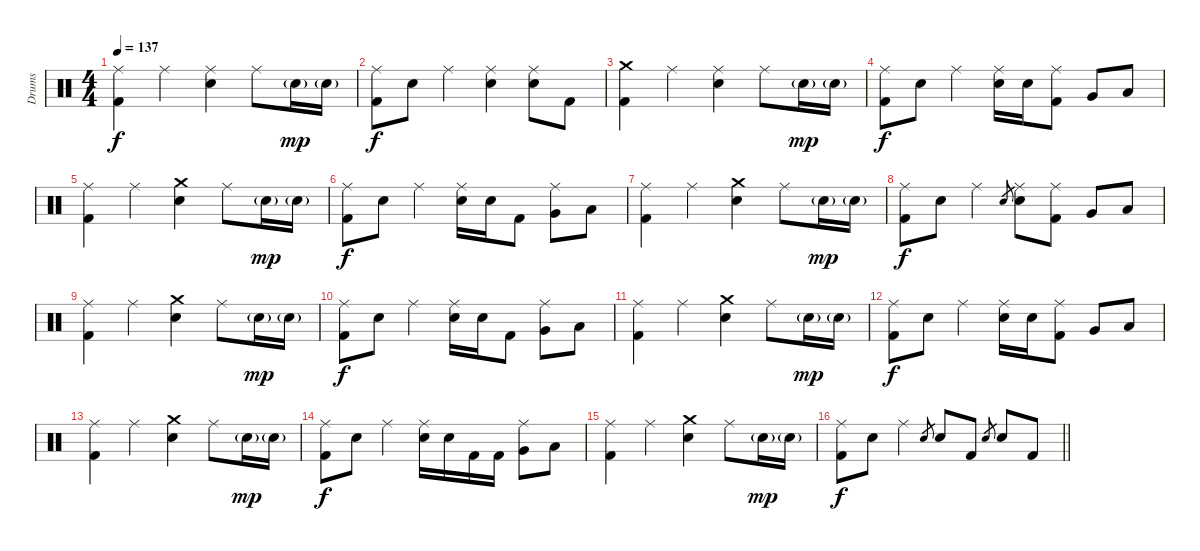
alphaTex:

\track ("Drums" "Drums") {instrument percussion}
\staff {score}
\articulation defaults
\ts (4 4)
\tempo 137
\clef neutral
\ks c
("Ride (middle)" "Kick (hit) 2").4{dy f} "Ride (middle)".4 ("Ride (middle)" "Electric Snare (hit)").4 "Ride (middle)".8 "Electric Snare (hit)"{g}.16{dy mp} "Electric Snare (hit)"{g}.16 |
("Ride (middle)" "Kick (hit) 2").8{dy f} "Electric Snare (hit)".8 "Ride (middle)".4 ("Ride (middle)" "Electric Snare (hit)").4 ("Ride (middle)" "Electric Snare (hit)").8 "Kick (hit) 2".8 |
("Crash medium (hit)" "Kick (hit) 2").4 "Ride (middle)".4 ("Ride (middle)" "Electric Snare (hit)").4 "Ride (middle)".8 "Electric Snare (hit)"{g}.16{dy mp} "Electric Snare (hit)"{g}.16 |
("Ride (middle)" "Kick (hit) 2").8{dy f} "Electric Snare (hit)".8 "Ride (middle)".4 ("Ride (middle)" "Electric Snare (hit)").16 "Electric Snare (hit)".16 ("Ride (middle)" "Kick (hit) 2").8 "Very Low Tom (hit)".8 "Low Floor Tom (hit)".8 |
("Ride (middle)" "Kick (hit) 2").4 "Ride (middle)".4 ("Crash medium (hit)" "Electric Snare (hit)").4 "Ride (middle)".8 "Electric Snare (hit)"{g}.16{dy mp} "Electric Snare (hit)"{g}.16 |
("Ride (middle)" "Kick (hit) 2").8{dy f} "Electric Snare (hit)".8 "Ride (middle)".4 ("Ride (middle)" "Electric Snare (hit)").16 "Electric Snare (hit)".16 "Kick (hit) 2".8 ("Ride (middle)" "Very Low Tom (hit)").8 "Low Floor Tom (hit)".8 |
("Ride (middle)" "Kick (hit) 2").4 "Ride (middle)".4 ("Crash medium (hit)" "Electric Snare (hit)").4 "Ride (middle)".8 "Electric Snare (hit)"{g}.16{dy mp} "Electric Snare (hit)"{g}.16 |
("Ride (middle)" "Kick (hit) 2").8{dy f} "Electric Snare (hit)".8 "Ride (middle)".4 "Electric Snare (hit)".8{gr} ("Ride (middle)" "Electric Snare (hit)").8 ("Ride (middle)" "Kick (hit) 2").8 "Very Low Tom (hit)".8 "Low Floor Tom (hit)".8 |
("Ride (middle)" "Kick (hit) 2").4 "Ride (middle)".4 ("Crash medium (hit)" "Electric Snare (hit)").4 "Ride (middle)".8 "Electric Snare (hit)"{g}.16{dy mp} "Electric Snare (hit)"{g}.16 |
("Ride (middle)" "Kick (hit) 2").8{dy f} "Electric Snare (hit)".8 "Ride (middle)".4 ("Ride (middle)" "Electric Snare (hit)").16 "Electric Snare (hit)".16 "Kick (hit) 2".8 ("Ride (middle)" "Very Low Tom (hit)").8 "Low Floor Tom (hit)".8 |
("Ride (middle)" "Kick (hit) 2").4 "Ride (middle)".4 ("Crash medium (hit)" "Electric Snare (hit)").4 "Ride (middle)".8 "Electric Snare (hit)"{g}.16{dy mp} "Electric Snare (hit)"{g}.16 |
("Ride (middle)" "Kick (hit) 2").8{dy f} "Electric Snare (hit)".8 "Ride (middle)".4 ("Ride (middle)" "Electric Snare (hit)").16 "Electric Snare (hit)".16 ("Ride (middle)" "Kick (hit) 2").8 "Very Low Tom (hit)".8 "Low Floor Tom (hit)".8 |
("Ride (middle)" "Kick (hit) 2").4 "Ride (middle)".4 ("Crash medium (hit)" "Electric Snare (hit)").4 "Ride (middle)".8 "Electric Snare (hit)"{g}.16{dy mp} "Electric Snare (hit)"{g}.16 |
("Ride (middle)" "Kick (hit) 2").8{dy f} "Electric Snare (hit)".8 "Ride (middle)".4 ("Ride (middle)" "Electric Snare (hit)").16 "Electric Snare (hit)".16 "Kick (hit) 2".16 "Kick (hit) 2".16 ("Ride (middle)" "Very Low Tom (hit)").8 "Low Floor Tom (hit)".8 |
("Ride (middle)" "Kick (hit) 2").4 "Ride (middle)".4 ("Crash medium (hit)" "Electric Snare (hit)").4 "Ride (middle)".8 "Electric Snare (hit)"{g}.16{dy mp} "Electric Snare (hit)"{g}.16 |
\barLineRight lightlight
("Ride (middle)" "Kick (hit) 2").8{dy f} "Electric Snare (hit)".8 "Ride (middle)".4 "Electric Snare (hit)".8{gr} "Electric Snare (hit)".8 "Kick (hit) 2".8 "Electric Snare (hit)".8{gr} "Electric Snare (hit)".8 "Kick (hit) 2".8
